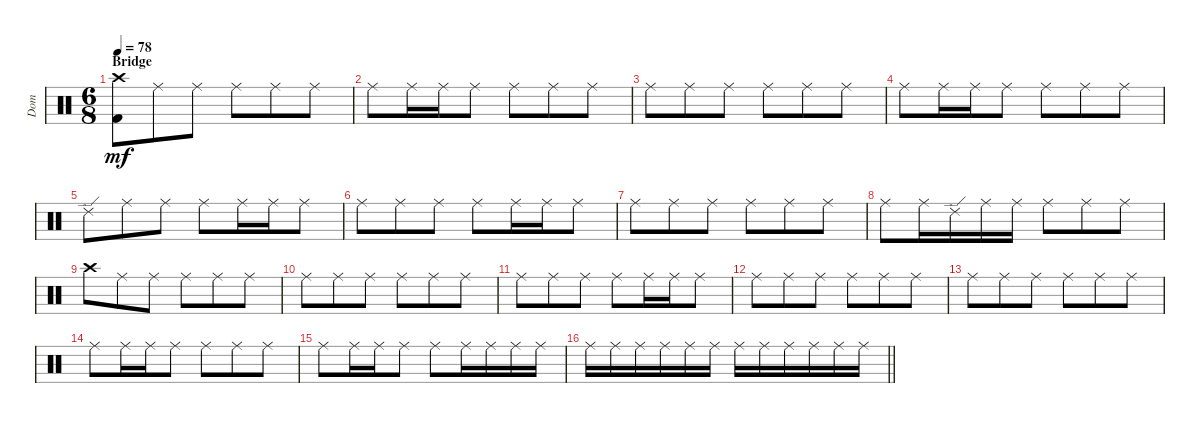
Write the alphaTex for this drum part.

\track ("Dom" "Dom") {instrument percussion}
\staff {score}
\articulation defaults
\ts (6 8)
\section ("" "Bridge")
\tempo 78
\clef neutral
\ks c
("Crash high (hit)" "Kick (hit) 2").8{dy mf} "Ride (middle)".8 "Ride (middle)".8 "Ride (middle)".8 "Ride (middle)".8 "Ride (middle)".8 |
"Ride (middle)".8 "Ride (middle)".16 "Ride (middle)".16 "Ride (middle)".8 "Ride (middle)".8 "Ride (middle)".8 "Ride (middle)".8 |
"Ride (middle)".8 "Ride (middle)".8 "Ride (middle)".8 "Ride (middle)".8 "Ride (middle)".8 "Ride (middle)".8 |
"Ride (middle)".8 "Ride (middle)".16 "Ride (middle)".16 "Ride (middle)".8 "Ride (middle)".8 "Ride (middle)".8 "Ride (middle)".8 |
"Ride (edge) 2".8 "Ride (middle)".8 "Ride (middle)".8 "Ride (middle)".8 "Ride (middle)".16 "Ride (middle)".16 "Ride (middle)".8 |
"Ride (middle)".8 "Ride (middle)".8 "Ride (middle)".8 "Ride (middle)".8 "Ride (middle)".16 "Ride (middle)".16 "Ride (middle)".8 |
"Ride (middle)".8 "Ride (middle)".8 "Ride (middle)".8 "Ride (middle)".8 "Ride (middle)".8 "Ride (middle)".8 |
"Ride (middle)".8 "Ride (middle)".16 "Ride (edge) 2".16 "Ride (middle)".16 "Ride (middle)".16 "Ride (middle)".8 "Ride (middle)".8 "Ride (middle)".8 |
"Crash high (hit)".8 "Ride (middle)".8 "Ride (middle)".8 "Ride (middle)".8 "Ride (middle)".8 "Ride (middle)".8 |
"Ride (middle)".8 "Ride (middle)".8 "Ride (middle)".8 "Ride (middle)".8 "Ride (middle)".8 "Ride (middle)".8 |
"Ride (middle)".8 "Ride (middle)".8 "Ride (middle)".8 "Ride (middle)".8 "Ride (middle)".16 "Ride (middle)".16 "Ride (middle)".8 |
"Ride (middle)".8 "Ride (middle)".8 "Ride (middle)".8 "Ride (middle)".8 "Ride (middle)".8 "Ride (middle)".8 |
"Ride (middle)".8 "Ride (middle)".8 "Ride (middle)".8 "Ride (middle)".8 "Ride (middle)".8 "Ride (middle)".8 |
"Ride (middle)".8 "Ride (middle)".16 "Ride (middle)".16 "Ride (middle)".8 "Ride (middle)".8 "Ride (middle)".8 "Ride (middle)".8 |
"Ride (middle)".8 "Ride (middle)".16 "Ride (middle)".16 "Ride (middle)".8 "Ride (middle)".8 "Ride (middle)".16 "Ride (middle)".16 "Ride (middle)".16 "Ride (middle)".16 |
\barLineRight lightlight "Ride (middle)".16 "Ride (middle)".16 "Ride (middle)".16 "Ride (middle)".16 "Ride (middle)".16 "Ride (middle)".16 "Ride (middle)".16 "Ride (middle)".16 "Ride (middle)".16 "Ride (middle)".16 "Ride (middle)".16 "Ride (middle)".16
